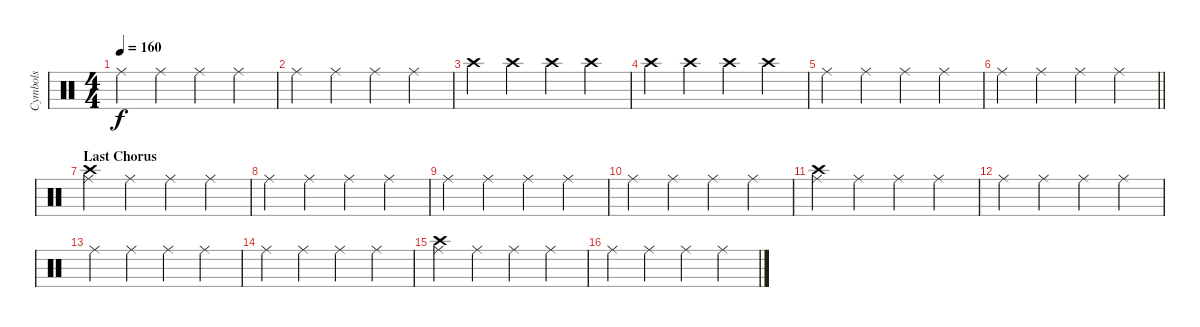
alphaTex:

\track ("Cymbols" "Cymbols") {instrument percussion}
\staff {score}
\articulation defaults
\ts (4 4)
\tempo 160
\clef neutral
\ks c "Ride (middle)".4{dy f} "Ride (middle)".4 "Ride (middle)".4 "Ride (middle)".4
|
"Ride (middle)".4 "Ride (middle)".4 "Ride (middle)".4 "Ride (middle)".4 |
"Crash high (hit)".4 "Crash high (hit)".4 "Crash high (hit)".4 "Crash high (hit)".4 |
"Crash high (hit)".4 "Crash high (hit)".4 "Crash high (hit)".4 "Crash high (hit)".4 |
"Ride (middle)".4 "Ride (middle)".4 "Ride (middle)".4 "Ride (middle)".4 |
\barLineRight lightlight "Ride (middle)".4 "Ride (middle)".4 "Ride (middle)".4 "Ride (middle)".4
|
\section ("" "Last Chorus")
("Crash high (hit)" "Ride (middle)").4 "Ride (middle)".4 "Ride (middle)".4 "Ride (middle)".4 |
"Ride (middle)".4 "Ride (middle)".4 "Ride (middle)".4 "Ride (middle)".4 |
"Ride (middle)".4 "Ride (middle)".4 "Ride (middle)".4 "Ride (middle)".4 |
"Ride (middle)".4 "Ride (middle)".4 "Ride (middle)".4 "Ride (middle)".4 |
("Crash high (hit)" "Ride (middle)").4 "Ride (middle)".4 "Ride (middle)".4 "Ride (middle)".4 |
"Ride (middle)".4 "Ride (middle)".4 "Ride (middle)".4 "Ride (middle)".4 |
"Ride (middle)".4 "Ride (middle)".4 "Ride (middle)".4 "Ride (middle)".4 |
"Ride (middle)".4 "Ride (middle)".4 "Ride (middle)".4 "Ride (middle)".4 |
("Crash high (hit)" "Ride (middle)").4 "Ride (middle)".4 "Ride (middle)".4 "Ride (middle)".4 |
"Ride (middle)".4 "Ride (middle)".4 "Ride (middle)".4 "Ride (middle)".4
